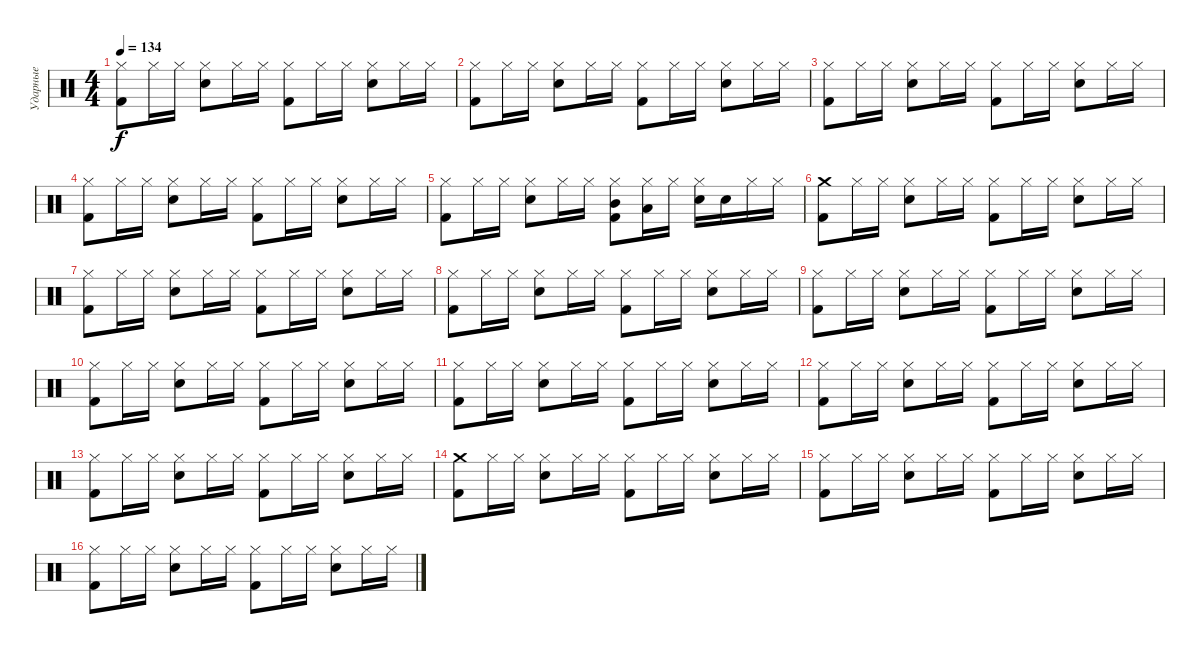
\track ("Ударные" "Ударные") {instrument percussion}
\staff {score}
\articulation defaults
\ts (4 4)
\tempo 134
\clef neutral
\ks c
("Hi-Hat (closed)" "Kick (hit) 2").8{dy f} "Hi-Hat (closed)".16 "Hi-Hat (closed)".16 ("Hi-Hat (closed)" "Snare (hit) 2").8 "Hi-Hat (closed)".16 "Hi-Hat (closed)".16 ("Hi-Hat (closed)" "Kick (hit) 2").8 "Hi-Hat (closed)".16 "Hi-Hat (closed)".16 ("Hi-Hat (closed)" "Snare (hit) 2").8 "Hi-Hat (closed)".16 "Hi-Hat (closed)".16 |
("Hi-Hat (closed)" "Kick (hit) 2").8 "Hi-Hat (closed)".16 "Hi-Hat (closed)".16 ("Hi-Hat (closed)" "Snare (hit) 2").8 "Hi-Hat (closed)".16 "Hi-Hat (closed)".16 ("Hi-Hat (closed)" "Kick (hit) 2").8 "Hi-Hat (closed)".16 "Hi-Hat (closed)".16 ("Hi-Hat (closed)" "Snare (hit) 2").8 "Hi-Hat (closed)".16 "Hi-Hat (closed)".16 |
("Hi-Hat (closed)" "Kick (hit) 2").8 "Hi-Hat (closed)".16 "Hi-Hat (closed)".16 ("Hi-Hat (closed)" "Snare (hit) 2").8 "Hi-Hat (closed)".16 "Hi-Hat (closed)".16 ("Hi-Hat (closed)" "Kick (hit) 2").8 "Hi-Hat (closed)".16 "Hi-Hat (closed)".16 ("Hi-Hat (closed)" "Snare (hit) 2").8 "Hi-Hat (closed)".16 "Hi-Hat (closed)".16 |
("Hi-Hat (closed)" "Kick (hit) 2").8 "Hi-Hat (closed)".16 "Hi-Hat (closed)".16 ("Hi-Hat (closed)" "Snare (hit) 2").8 "Hi-Hat (closed)".16 "Hi-Hat (closed)".16 ("Hi-Hat (closed)" "Kick (hit) 2").8 "Hi-Hat (closed)".16 "Hi-Hat (closed)".16 ("Hi-Hat (closed)" "Snare (hit) 2").8 "Hi-Hat (closed)".16 "Hi-Hat (closed)".16 |
("Hi-Hat (closed)" "Kick (hit) 2").8 "Hi-Hat (closed)".16 "Hi-Hat (closed)".16 ("Hi-Hat (closed)" "Snare (hit) 2").8 "Hi-Hat (closed)".16 "Hi-Hat (closed)".16 ("Hi-Hat (closed)" "Mid Tom (hit)" "Kick (hit) 2").8 ("Hi-Hat (closed)" "Low Tom (hit)").16 "Hi-Hat (closed)".16 ("Hi-Hat (closed)" "Snare (hit) 2").16 "Snare (hit) 2".16 "Hi-Hat (closed)".16 "Hi-Hat (closed)".16 |
("Crash medium (hit)" "Kick (hit) 2").8 "Hi-Hat (closed)".16 "Hi-Hat (closed)".16 ("Hi-Hat (closed)" "Snare (hit) 2").8 "Hi-Hat (closed)".16 "Hi-Hat (closed)".16 ("Hi-Hat (closed)" "Kick (hit) 2").8 "Hi-Hat (closed)".16 "Hi-Hat (closed)".16 ("Hi-Hat (closed)" "Snare (hit) 2").8 "Hi-Hat (closed)".16 "Hi-Hat (closed)".16 |
("Hi-Hat (closed)" "Kick (hit) 2").8 "Hi-Hat (closed)".16 "Hi-Hat (closed)".16 ("Hi-Hat (closed)" "Snare (hit) 2").8 "Hi-Hat (closed)".16 "Hi-Hat (closed)".16 ("Hi-Hat (closed)" "Kick (hit) 2").8 "Hi-Hat (closed)".16 "Hi-Hat (closed)".16 ("Hi-Hat (closed)" "Snare (hit) 2").8 "Hi-Hat (closed)".16 "Hi-Hat (closed)".16 |
("Hi-Hat (closed)" "Kick (hit) 2").8 "Hi-Hat (closed)".16 "Hi-Hat (closed)".16 ("Hi-Hat (closed)" "Snare (hit) 2").8 "Hi-Hat (closed)".16 "Hi-Hat (closed)".16 ("Hi-Hat (closed)" "Kick (hit) 2").8 "Hi-Hat (closed)".16 "Hi-Hat (closed)".16 ("Hi-Hat (closed)" "Snare (hit) 2").8 "Hi-Hat (closed)".16 "Hi-Hat (closed)".16 |
("Hi-Hat (closed)" "Kick (hit) 2").8 "Hi-Hat (closed)".16 "Hi-Hat (closed)".16 ("Hi-Hat (closed)" "Snare (hit) 2").8 "Hi-Hat (closed)".16 "Hi-Hat (closed)".16 ("Hi-Hat (closed)" "Kick (hit) 2").8 "Hi-Hat (closed)".16 "Hi-Hat (closed)".16 ("Hi-Hat (closed)" "Snare (hit) 2").8 "Hi-Hat (closed)".16 "Hi-Hat (closed)".16 |
("Hi-Hat (closed)" "Kick (hit) 2").8 "Hi-Hat (closed)".16 "Hi-Hat (closed)".16 ("Hi-Hat (closed)" "Snare (hit) 2").8 "Hi-Hat (closed)".16 "Hi-Hat (closed)".16 ("Hi-Hat (closed)" "Kick (hit) 2").8 "Hi-Hat (closed)".16 "Hi-Hat (closed)".16 ("Hi-Hat (closed)" "Snare (hit) 2").8 "Hi-Hat (closed)".16 "Hi-Hat (closed)".16 |
("Hi-Hat (closed)" "Kick (hit) 2").8 "Hi-Hat (closed)".16 "Hi-Hat (closed)".16 ("Hi-Hat (closed)" "Snare (hit) 2").8 "Hi-Hat (closed)".16 "Hi-Hat (closed)".16 ("Hi-Hat (closed)" "Kick (hit) 2").8 "Hi-Hat (closed)".16 "Hi-Hat (closed)".16 ("Hi-Hat (closed)" "Snare (hit) 2").8 "Hi-Hat (closed)".16 "Hi-Hat (closed)".16 |
("Hi-Hat (closed)" "Kick (hit) 2").8 "Hi-Hat (closed)".16 "Hi-Hat (closed)".16 ("Hi-Hat (closed)" "Snare (hit) 2").8 "Hi-Hat (closed)".16 "Hi-Hat (closed)".16 ("Hi-Hat (closed)" "Kick (hit) 2").8 "Hi-Hat (closed)".16 "Hi-Hat (closed)".16 ("Hi-Hat (closed)" "Snare (hit) 2").8 "Hi-Hat (closed)".16 "Hi-Hat (closed)".16 |
("Hi-Hat (closed)" "Kick (hit) 2").8 "Hi-Hat (closed)".16 "Hi-Hat (closed)".16 ("Hi-Hat (closed)" "Snare (hit) 2").8 "Hi-Hat (closed)".16 "Hi-Hat (closed)".16 ("Hi-Hat (closed)" "Kick (hit) 2").8 "Hi-Hat (closed)".16 "Hi-Hat (closed)".16 ("Hi-Hat (closed)" "Snare (hit) 2").8 "Hi-Hat (closed)".16 "Hi-Hat (closed)".16 |
("Crash medium (hit)" "Kick (hit) 2").8 "Hi-Hat (closed)".16 "Hi-Hat (closed)".16 ("Hi-Hat (closed)" "Snare (hit) 2").8 "Hi-Hat (closed)".16 "Hi-Hat (closed)".16 ("Hi-Hat (closed)" "Kick (hit) 2").8 "Hi-Hat (closed)".16 "Hi-Hat (closed)".16 ("Hi-Hat (closed)" "Snare (hit) 2").8 "Hi-Hat (closed)".16 "Hi-Hat (closed)".16 |
("Hi-Hat (closed)" "Kick (hit) 2").8 "Hi-Hat (closed)".16 "Hi-Hat (closed)".16 ("Hi-Hat (closed)" "Snare (hit) 2").8 "Hi-Hat (closed)".16 "Hi-Hat (closed)".16 ("Hi-Hat (closed)" "Kick (hit) 2").8 "Hi-Hat (closed)".16 "Hi-Hat (closed)".16 ("Hi-Hat (closed)" "Snare (hit) 2").8 "Hi-Hat (closed)".16 "Hi-Hat (closed)".16 |
("Hi-Hat (closed)" "Kick (hit) 2").8 "Hi-Hat (closed)".16 "Hi-Hat (closed)".16 ("Hi-Hat (closed)" "Snare (hit) 2").8 "Hi-Hat (closed)".16 "Hi-Hat (closed)".16 ("Hi-Hat (closed)" "Kick (hit) 2").8 "Hi-Hat (closed)".16 "Hi-Hat (closed)".16 ("Hi-Hat (closed)" "Snare (hit) 2").8 "Hi-Hat (closed)".16 "Hi-Hat (closed)".16
